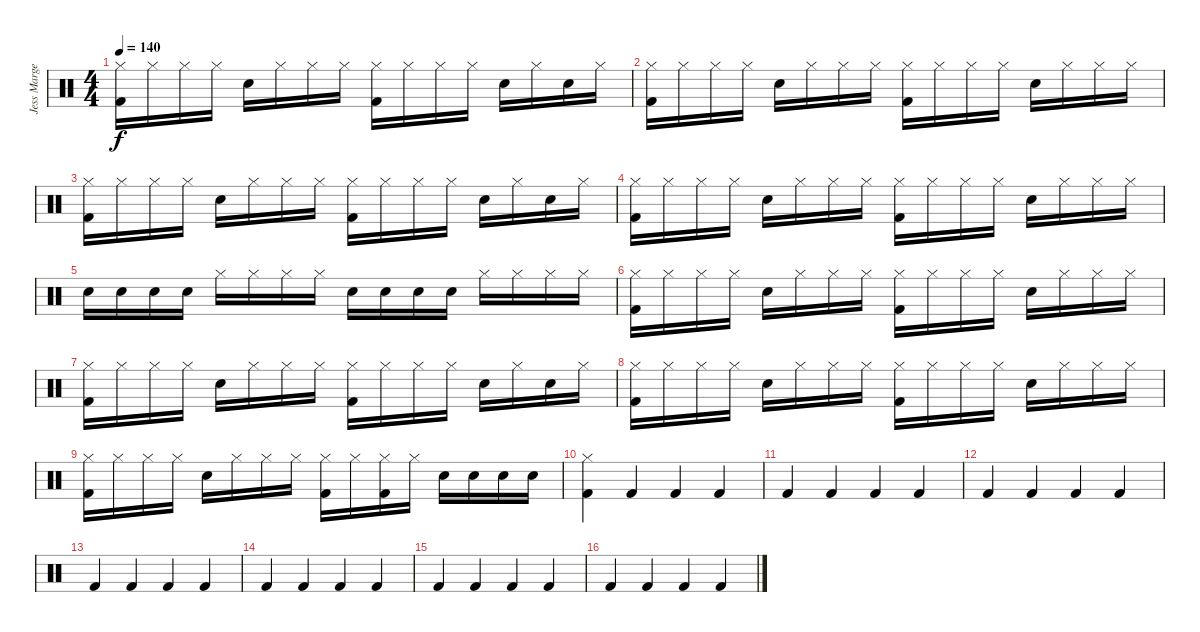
\track ("Jess Margera" "Jess Marge") {instrument percussion}
\staff {score}
\articulation defaults
\ts (4 4)
\tempo 140
\clef neutral
\ks c
("Hi-Hat (closed)" "Kick (hit) 2").16{dy f} "Hi-Hat (closed)".16 "Hi-Hat (closed)".16 "Hi-Hat (closed)".16 "Electric Snare (hit)".16 "Hi-Hat (closed)".16 "Hi-Hat (closed)".16 "Hi-Hat (closed)".16 ("Hi-Hat (closed)" "Kick (hit) 2").16 "Hi-Hat (closed)".16 "Hi-Hat (closed)".16 "Hi-Hat (closed)".16 "Electric Snare (hit)".16 "Hi-Hat (closed)".16 "Electric Snare (hit)".16 "Hi-Hat (closed)".16 |
("Hi-Hat (closed)" "Kick (hit) 2").16 "Hi-Hat (closed)".16 "Hi-Hat (closed)".16 "Hi-Hat (closed)".16 "Electric Snare (hit)".16 "Hi-Hat (closed)".16 "Hi-Hat (closed)".16 "Hi-Hat (closed)".16 ("Hi-Hat (closed)" "Kick (hit) 2").16 "Hi-Hat (closed)".16 "Hi-Hat (closed)".16 "Hi-Hat (closed)".16 "Electric Snare (hit)".16 "Hi-Hat (closed)".16 "Hi-Hat (closed)".16 "Hi-Hat (closed)".16 |
("Hi-Hat (closed)" "Kick (hit) 2").16 "Hi-Hat (closed)".16 "Hi-Hat (closed)".16 "Hi-Hat (closed)".16 "Electric Snare (hit)".16 "Hi-Hat (closed)".16 "Hi-Hat (closed)".16 "Hi-Hat (closed)".16 ("Hi-Hat (closed)" "Kick (hit) 2").16 "Hi-Hat (closed)".16 "Hi-Hat (closed)".16 "Hi-Hat (closed)".16 "Electric Snare (hit)".16 "Hi-Hat (closed)".16 "Electric Snare (hit)".16 "Hi-Hat (closed)".16 |
("Hi-Hat (closed)" "Kick (hit) 2").16 "Hi-Hat (closed)".16 "Hi-Hat (closed)".16 "Hi-Hat (closed)".16 "Electric Snare (hit)".16 "Hi-Hat (closed)".16 "Hi-Hat (closed)".16 "Hi-Hat (closed)".16 ("Hi-Hat (closed)" "Kick (hit) 2").16 "Hi-Hat (closed)".16 "Hi-Hat (closed)".16 "Hi-Hat (closed)".16 "Electric Snare (hit)".16 "Hi-Hat (closed)".16 "Hi-Hat (closed)".16 "Hi-Hat (closed)".16 |
"Electric Snare (hit)".16 "Electric Snare (hit)".16 "Electric Snare (hit)".16 "Electric Snare (hit)".16 "Hi-Hat (closed)".16 "Hi-Hat (closed)".16 "Hi-Hat (closed)".16 "Hi-Hat (closed)".16 "Electric Snare (hit)".16 "Electric Snare (hit)".16 "Electric Snare (hit)".16 "Electric Snare (hit)".16 "Hi-Hat (closed)".16 "Hi-Hat (closed)".16 "Hi-Hat (closed)".16 "Hi-Hat (closed)".16 |
("Hi-Hat (closed)" "Kick (hit) 2").16 "Hi-Hat (closed)".16 "Hi-Hat (closed)".16 "Hi-Hat (closed)".16 "Electric Snare (hit)".16 "Hi-Hat (closed)".16 "Hi-Hat (closed)".16 "Hi-Hat (closed)".16 ("Hi-Hat (closed)" "Kick (hit) 2").16 "Hi-Hat (closed)".16 "Hi-Hat (closed)".16 "Hi-Hat (closed)".16 "Electric Snare (hit)".16 "Hi-Hat (closed)".16 "Hi-Hat (closed)".16 "Hi-Hat (closed)".16 |
("Hi-Hat (closed)" "Kick (hit) 2").16 "Hi-Hat (closed)".16 "Hi-Hat (closed)".16 "Hi-Hat (closed)".16 "Electric Snare (hit)".16 "Hi-Hat (closed)".16 "Hi-Hat (closed)".16 "Hi-Hat (closed)".16 ("Hi-Hat (closed)" "Kick (hit) 2").16 "Hi-Hat (closed)".16 "Hi-Hat (closed)".16 "Hi-Hat (closed)".16 "Electric Snare (hit)".16 "Hi-Hat (closed)".16 "Electric Snare (hit)".16 "Hi-Hat (closed)".16 |
("Hi-Hat (closed)" "Kick (hit) 2").16 "Hi-Hat (closed)".16 "Hi-Hat (closed)".16 "Hi-Hat (closed)".16 "Electric Snare (hit)".16 "Hi-Hat (closed)".16 "Hi-Hat (closed)".16 "Hi-Hat (closed)".16 ("Hi-Hat (closed)" "Kick (hit) 2").16 "Hi-Hat (closed)".16 "Hi-Hat (closed)".16 "Hi-Hat (closed)".16 "Electric Snare (hit)".16 "Hi-Hat (closed)".16 "Hi-Hat (closed)".16 "Hi-Hat (closed)".16 |
("Hi-Hat (closed)" "Kick (hit) 2").16 "Hi-Hat (closed)".16 "Hi-Hat (closed)".16 "Hi-Hat (closed)".16 "Electric Snare (hit)".16 "Hi-Hat (closed)".16 "Hi-Hat (closed)".16 "Hi-Hat (closed)".16 ("Hi-Hat (closed)" "Kick (hit) 2").16 "Hi-Hat (closed)".16 ("Hi-Hat (closed)" "Kick (hit) 2").16 "Hi-Hat (closed)".16 "Electric Snare (hit)".16 "Electric Snare (hit)".16 "Electric Snare (hit)".16 "Electric Snare (hit)".16 |
("Hi-Hat (closed)" "Kick (hit) 2").4 "Kick (hit) 2".4 "Kick (hit) 2".4 "Kick (hit) 2".4 |
"Kick (hit) 2".4 "Kick (hit) 2".4 "Kick (hit) 2".4 "Kick (hit) 2".4 |
"Kick (hit) 2".4 "Kick (hit) 2".4 "Kick (hit) 2".4 "Kick (hit) 2".4 |
"Kick (hit) 2".4 "Kick (hit) 2".4 "Kick (hit) 2".4 "Kick (hit) 2".4 |
"Kick (hit) 2".4 "Kick (hit) 2".4 "Kick (hit) 2".4 "Kick (hit) 2".4 |
"Kick (hit) 2".4 "Kick (hit) 2".4 "Kick (hit) 2".4 "Kick (hit) 2".4 |
"Kick (hit) 2".4 "Kick (hit) 2".4 "Kick (hit) 2".4 "Kick (hit) 2".4
